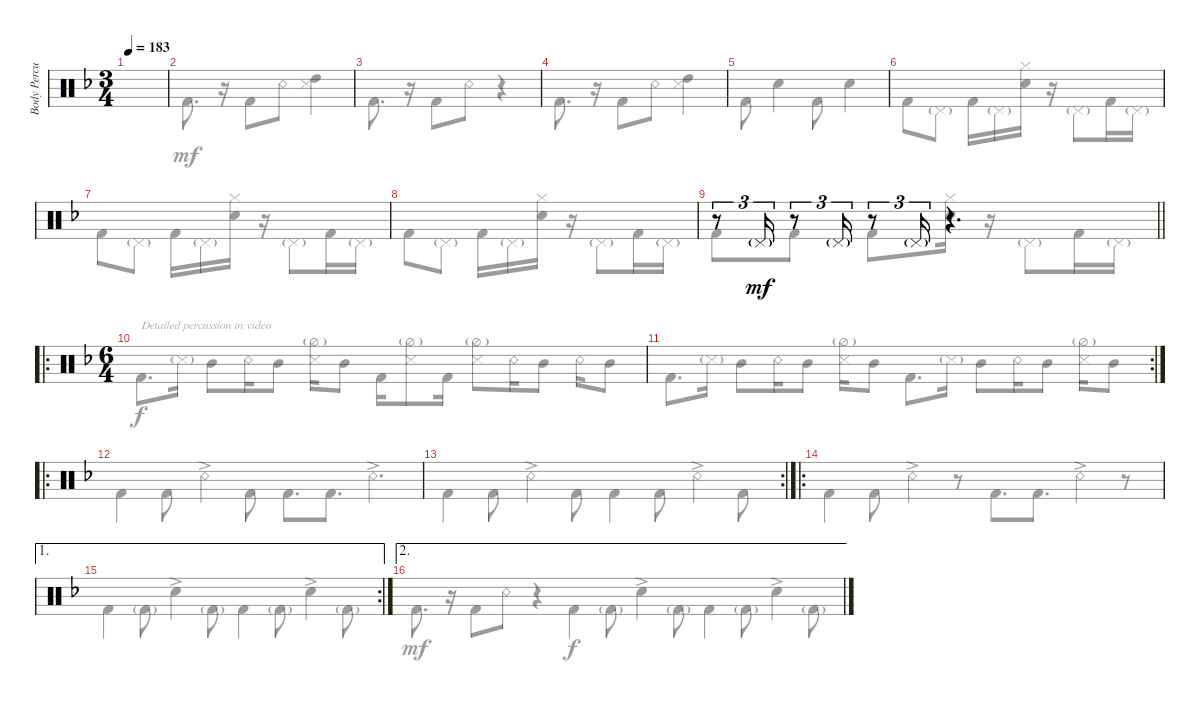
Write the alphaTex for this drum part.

\track ("Body Percussion" "Body Percu") {instrument percussion}
\staff {score}
\articulation defaults
\voice
\ts (3 4)
\tempo 183
\clef neutral
\ks dminor
|
|
|
|
|
|
|
|
\barLineRight lightlight
r.8{tu (3 2)} "Pedal Hi-Hat (hit)"{g}.16{tu (3 2) dy mf} r.8{tu (3 2)} "Pedal Hi-Hat (hit)"{g}.16{tu (3 2)} r.8{tu (3 2)} "Pedal Hi-Hat (hit)"{g}.16{tu (3 2)} r.4{d} |
\ro
\ts (6 4)
|
\rc 2
|
\ro
|
\rc 2
|
\ro
|
\ae 1
\rc 2
|
\ae 2
\voice
\clef neutral
\ottava regular
\simile none
\ks dminor "Kick (hit) 2".8{d dy mf}
r.16 "Kick (hit) 2".8 "Snare (rim shot)".8 r.4 |
"Kick (hit) 2".8{d} r.16 "Kick (hit) 2".8 "Snare (rim shot)".8 ("High Tom (hit)" "Snare (side stick) 3").4 |
"Kick (hit) 2".8{d} r.16 "Kick (hit) 2".8 "Snare (rim shot)".8 r.4 |
"Kick (hit) 2".8{d} r.16 "Kick (hit) 2".8 "Snare (rim shot)".8 ("High Tom (hit)" "Snare (side stick) 3").4 |
"Kick (hit) 2".8 "Snare (hit) 2".4 "Kick (hit) 2".8 "Snare (hit) 2".4 |
"Kick (hit) 2".8 "Pedal Hi-Hat (hit)"{g}.8 "Kick (hit) 2".16 "Pedal Hi-Hat (hit)"{g}.16 ("Snare (hit) 2" "Hi-Hat (closed)").16 r.16 "Pedal Hi-Hat (hit)"{g}.8 "Kick (hit) 2".16 "Pedal Hi-Hat (hit)"{g}.16 |
"Kick (hit) 2".8 "Pedal Hi-Hat (hit)"{g}.8 "Kick (hit) 2".16 "Pedal Hi-Hat (hit)"{g}.16 ("Snare (hit) 2" "Hi-Hat (closed)").16 r.16 "Pedal Hi-Hat (hit)"{g}.8 "Kick (hit) 2".16 "Pedal Hi-Hat (hit)"{g}.16 |
"Kick (hit) 2".8 "Pedal Hi-Hat (hit)"{g}.8 "Kick (hit) 2".16 "Pedal Hi-Hat (hit)"{g}.16 ("Snare (hit) 2" "Hi-Hat (closed)").16 r.16 "Pedal Hi-Hat (hit)"{g}.8 "Kick (hit) 2".16 "Pedal Hi-Hat (hit)"{g}.16 |
\barLineRight lightlight "Kick (hit) 2".8 "Kick (hit) 2".8 "Kick (hit) 2".8
("Snare (hit) 2" "Hi-Hat (closed)").16 r.16 "Pedal Hi-Hat (hit)"{g}.8 "Kick (hit) 2".16 "Pedal Hi-Hat (hit)"{g}.16 |
"Kick (hit) 2".8{d txt "Detailed percussion in video" dy f} "Snare (side stick) 3"{g}.16 "Mid Tom (hit)".8 "Snare (rim shot)".16 "Mid Tom (hit)".8 ("Snare (side stick) 3" "Hi-Hat (half)"{g}).16 "Mid Tom (hit)".8 "Kick (hit) 2".16 ("Snare (side stick) 3" "Hi-Hat (half)"{g}).8 "Kick (hit) 2".16 ("Snare (side stick) 3" "Hi-Hat (half)"{g}).8 "Snare (rim shot)".16 "Mid Tom (hit)".8 "Snare (rim shot)".16 "Mid Tom (hit)".8 |
"Kick (hit) 2".8{d} "Snare (side stick) 3"{g}.16 "Mid Tom (hit)".8 "Snare (rim shot)".16 "Mid Tom (hit)".8 ("Snare (side stick) 3" "Hi-Hat (half)"{g}).16 "Mid Tom (hit)".8 "Kick (hit) 2".8{d} "Snare (side stick) 3"{g}.16 "Mid Tom (hit)".8 "Snare (rim shot)".16 "Mid Tom (hit)".8 ("Snare (side stick) 3" "Hi-Hat (half)"{g}).16 "Mid Tom (hit)".8 |
"Kick (hit) 2".4 "Kick (hit) 2".8 "Snare (rim shot)"{ac}.4 "Kick (hit) 2".8 "Kick (hit) 2".8{d} "Kick (hit) 2".8{d} "Snare (rim shot)"{ac}.4{d} |
"Kick (hit) 2".4 "Kick (hit) 2".8 "Snare (rim shot)"{ac}.4 "Kick (hit) 2".8 "Kick (hit) 2".4 "Kick (hit) 2".8 "Snare (rim shot)"{ac}.4 "Kick (hit) 2".8 |
"Kick (hit) 2".4 "Kick (hit) 2".8 "Snare (rim shot)"{ac}.4 r.8 "Kick (hit) 2".8{d} "Kick (hit) 2".8{d} "Snare (rim shot)"{ac}.4 r.8 |
"Kick (hit) 2".4 "Kick (hit) 2"{g}.8 "Snare (hit) 2"{ac}.4 "Kick (hit) 2"{g}.8 "Kick (hit) 2".4 "Kick (hit) 2"{g}.8 "Snare (hit) 2"{ac}.4 "Kick (hit) 2"{g}.8 |
"Kick (hit) 2".4 "Kick (hit) 2"{g}.8 "Snare (hit) 2"{ac}.4 "Kick (hit) 2"{g}.8 "Kick (hit) 2".4 "Kick (hit) 2"{g}.8 "Snare (hit) 2"{ac}.4 "Kick (hit) 2"{g}.8
